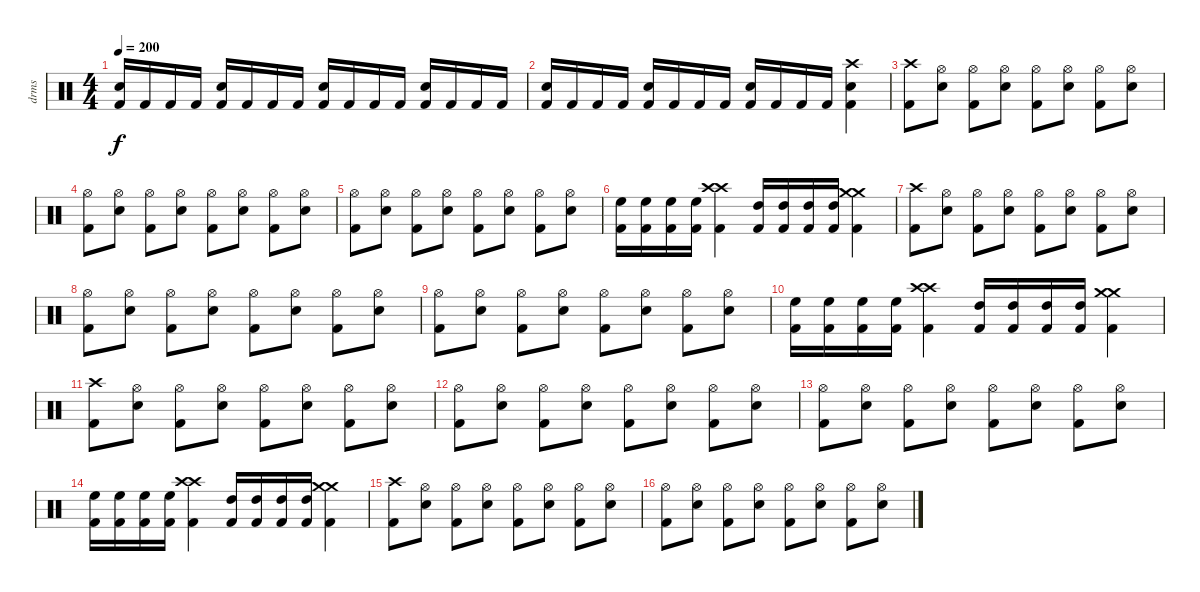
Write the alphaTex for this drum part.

\track ("drms" "drms") {instrument percussion}
\staff {score}
\articulation defaults
\ts (4 4)
\tempo 200
\clef neutral
\ks c
("Snare (hit) 2" "Kick (hit) 2").16{dy f} "Kick (hit) 2".16 "Kick (hit) 2".16 "Kick (hit) 2".16 ("Snare (hit) 2" "Kick (hit) 2").16 "Kick (hit) 2".16 "Kick (hit) 2".16 "Kick (hit) 2".16 ("Snare (hit) 2" "Kick (hit) 2").16 "Kick (hit) 2".16 "Kick (hit) 2".16 "Kick (hit) 2".16 ("Snare (hit) 2" "Kick (hit) 2").16 "Kick (hit) 2".16 "Kick (hit) 2".16 "Kick (hit) 2".16 |
("Snare (hit) 2" "Kick (hit) 2").16 "Kick (hit) 2".16 "Kick (hit) 2".16 "Kick (hit) 2".16 ("Snare (hit) 2" "Kick (hit) 2").16 "Kick (hit) 2".16 "Kick (hit) 2".16 "Kick (hit) 2".16 ("Snare (hit) 2" "Kick (hit) 2").16 "Kick (hit) 2".16 "Kick (hit) 2".16 "Kick (hit) 2".16 ("Crash high (hit)" "Snare (hit) 2" "Kick (hit) 2").4 |
("Crash high (hit)" "Kick (hit) 2").8 ("Hi-Hat (open)" "Snare (hit) 2").8 ("Hi-Hat (open)" "Kick (hit) 2").8 ("Hi-Hat (open)" "Snare (hit) 2").8 ("Hi-Hat (open)" "Kick (hit) 2").8 ("Hi-Hat (open)" "Snare (hit) 2").8 ("Hi-Hat (open)" "Kick (hit) 2").8 ("Hi-Hat (open)" "Snare (hit) 2").8 |
("Hi-Hat (open)" "Kick (hit) 2").8 ("Hi-Hat (open)" "Snare (hit) 2").8 ("Hi-Hat (open)" "Kick (hit) 2").8 ("Hi-Hat (open)" "Snare (hit) 2").8 ("Hi-Hat (open)" "Kick (hit) 2").8 ("Hi-Hat (open)" "Snare (hit) 2").8 ("Hi-Hat (open)" "Kick (hit) 2").8 ("Hi-Hat (open)" "Snare (hit) 2").8 |
("Hi-Hat (open)" "Kick (hit) 2").8 ("Hi-Hat (open)" "Snare (hit) 2").8 ("Hi-Hat (open)" "Kick (hit) 2").8 ("Hi-Hat (open)" "Snare (hit) 2").8 ("Hi-Hat (open)" "Kick (hit) 2").8 ("Hi-Hat (open)" "Snare (hit) 2").8 ("Hi-Hat (open)" "Kick (hit) 2").8 ("Hi-Hat (open)" "Snare (hit) 2").8 |
("High Floor Tom (hit)" "Kick (hit) 2").16 ("High Floor Tom (hit)" "Kick (hit) 2").16 ("High Floor Tom (hit)" "Kick (hit) 2").16 ("High Floor Tom (hit)" "Kick (hit) 2").16 ("Crash high (hit)" "Crash high (hit)" "Kick (hit) 2").4 ("High Tom (hit)" "Kick (hit) 2").16 ("High Tom (hit)" "Kick (hit) 2").16 ("High Tom (hit)" "Kick (hit) 2").16 ("High Tom (hit)" "Kick (hit) 2").16 ("Crash medium (hit)" "Crash medium (hit)" "Kick (hit) 2").4 |
("Crash high (hit)" "Kick (hit) 2").8 ("Hi-Hat (open)" "Snare (hit) 2").8 ("Hi-Hat (open)" "Kick (hit) 2").8 ("Hi-Hat (open)" "Snare (hit) 2").8 ("Hi-Hat (open)" "Kick (hit) 2").8 ("Hi-Hat (open)" "Snare (hit) 2").8 ("Hi-Hat (open)" "Kick (hit) 2").8 ("Hi-Hat (open)" "Snare (hit) 2").8 |
("Hi-Hat (open)" "Kick (hit) 2").8 ("Hi-Hat (open)" "Snare (hit) 2").8 ("Hi-Hat (open)" "Kick (hit) 2").8 ("Hi-Hat (open)" "Snare (hit) 2").8 ("Hi-Hat (open)" "Kick (hit) 2").8 ("Hi-Hat (open)" "Snare (hit) 2").8 ("Hi-Hat (open)" "Kick (hit) 2").8 ("Hi-Hat (open)" "Snare (hit) 2").8 |
("Hi-Hat (open)" "Kick (hit) 2").8 ("Hi-Hat (open)" "Snare (hit) 2").8 ("Hi-Hat (open)" "Kick (hit) 2").8 ("Hi-Hat (open)" "Snare (hit) 2").8 ("Hi-Hat (open)" "Kick (hit) 2").8 ("Hi-Hat (open)" "Snare (hit) 2").8 ("Hi-Hat (open)" "Kick (hit) 2").8 ("Hi-Hat (open)" "Snare (hit) 2").8 |
("High Floor Tom (hit)" "Kick (hit) 2").16 ("High Floor Tom (hit)" "Kick (hit) 2").16 ("High Floor Tom (hit)" "Kick (hit) 2").16 ("High Floor Tom (hit)" "Kick (hit) 2").16 ("Crash high (hit)" "Crash high (hit)" "Kick (hit) 2").4 ("High Tom (hit)" "Kick (hit) 2").16 ("High Tom (hit)" "Kick (hit) 2").16 ("High Tom (hit)" "Kick (hit) 2").16 ("High Tom (hit)" "Kick (hit) 2").16 ("Crash medium (hit)" "Crash medium (hit)" "Kick (hit) 2").4 |
("Crash high (hit)" "Kick (hit) 2").8 ("Hi-Hat (open)" "Snare (hit) 2").8 ("Hi-Hat (open)" "Kick (hit) 2").8 ("Hi-Hat (open)" "Snare (hit) 2").8 ("Hi-Hat (open)" "Kick (hit) 2").8 ("Hi-Hat (open)" "Snare (hit) 2").8 ("Hi-Hat (open)" "Kick (hit) 2").8 ("Hi-Hat (open)" "Snare (hit) 2").8 |
("Hi-Hat (open)" "Kick (hit) 2").8 ("Hi-Hat (open)" "Snare (hit) 2").8 ("Hi-Hat (open)" "Kick (hit) 2").8 ("Hi-Hat (open)" "Snare (hit) 2").8 ("Hi-Hat (open)" "Kick (hit) 2").8 ("Hi-Hat (open)" "Snare (hit) 2").8 ("Hi-Hat (open)" "Kick (hit) 2").8 ("Hi-Hat (open)" "Snare (hit) 2").8 |
("Hi-Hat (open)" "Kick (hit) 2").8 ("Hi-Hat (open)" "Snare (hit) 2").8 ("Hi-Hat (open)" "Kick (hit) 2").8 ("Hi-Hat (open)" "Snare (hit) 2").8 ("Hi-Hat (open)" "Kick (hit) 2").8 ("Hi-Hat (open)" "Snare (hit) 2").8 ("Hi-Hat (open)" "Kick (hit) 2").8 ("Hi-Hat (open)" "Snare (hit) 2").8 |
("High Floor Tom (hit)" "Kick (hit) 2").16 ("High Floor Tom (hit)" "Kick (hit) 2").16 ("High Floor Tom (hit)" "Kick (hit) 2").16 ("High Floor Tom (hit)" "Kick (hit) 2").16 ("Crash high (hit)" "Crash high (hit)" "Kick (hit) 2").4 ("High Tom (hit)" "Kick (hit) 2").16 ("High Tom (hit)" "Kick (hit) 2").16 ("High Tom (hit)" "Kick (hit) 2").16 ("High Tom (hit)" "Kick (hit) 2").16 ("Crash medium (hit)" "Crash medium (hit)" "Kick (hit) 2").4 |
("Crash high (hit)" "Kick (hit) 2").8 ("Hi-Hat (open)" "Snare (hit) 2").8 ("Hi-Hat (open)" "Kick (hit) 2").8 ("Hi-Hat (open)" "Snare (hit) 2").8 ("Hi-Hat (open)" "Kick (hit) 2").8 ("Hi-Hat (open)" "Snare (hit) 2").8 ("Hi-Hat (open)" "Kick (hit) 2").8 ("Hi-Hat (open)" "Snare (hit) 2").8 |
("Hi-Hat (open)" "Kick (hit) 2").8 ("Hi-Hat (open)" "Snare (hit) 2").8 ("Hi-Hat (open)" "Kick (hit) 2").8 ("Hi-Hat (open)" "Snare (hit) 2").8 ("Hi-Hat (open)" "Kick (hit) 2").8 ("Hi-Hat (open)" "Snare (hit) 2").8 ("Hi-Hat (open)" "Kick (hit) 2").8 ("Hi-Hat (open)" "Snare (hit) 2").8
